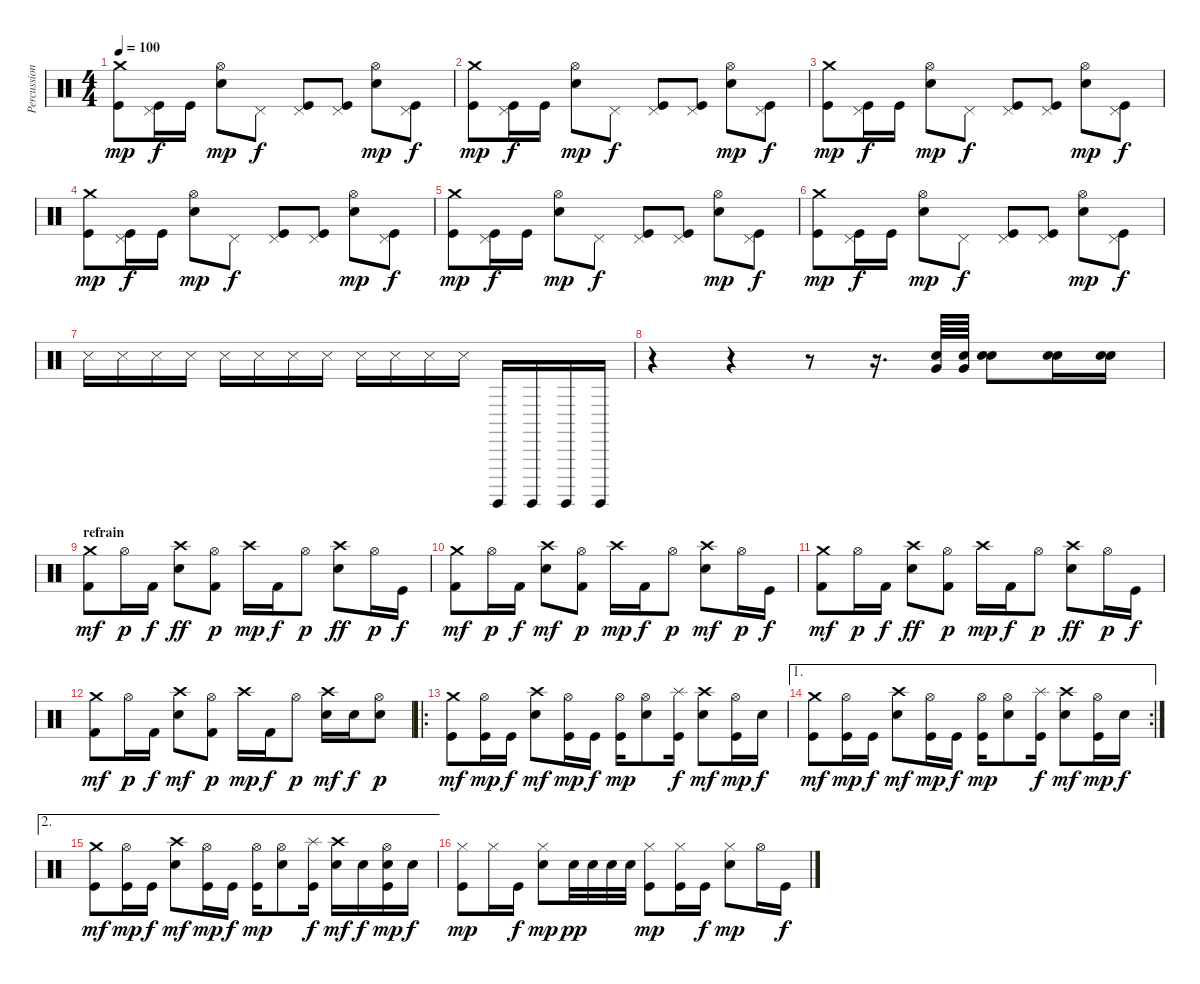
\track ("Percussions" "Percussion") {instrument percussion}
\staff {score}
\articulation defaults
\ts (4 4)
\tempo 100
\clef neutral
\ks c
("Crash medium (hit)" "Kick (hit)").8{dy mp} ("Pedal Hi-Hat (hit)" "Kick (hit)").16{dy f} "Kick (hit)".16 ("Hi-Hat (open)" "Electric Snare (hit)").8{dy mp} "Pedal Hi-Hat (hit)".8{dy f} ("Pedal Hi-Hat (hit)" "Kick (hit)").8 ("Pedal Hi-Hat (hit)" "Kick (hit)").8 ("Hi-Hat (open)" "Electric Snare (hit)").8{dy mp} ("Pedal Hi-Hat (hit)" "Kick (hit)").8{dy f} |
("Crash medium (hit)" "Kick (hit)").8{dy mp} ("Pedal Hi-Hat (hit)" "Kick (hit)").16{dy f} "Kick (hit)".16 ("Hi-Hat (open)" "Electric Snare (hit)").8{dy mp} "Pedal Hi-Hat (hit)".8{dy f} ("Pedal Hi-Hat (hit)" "Kick (hit)").8 ("Pedal Hi-Hat (hit)" "Kick (hit)").8 ("Hi-Hat (open)" "Electric Snare (hit)").8{dy mp} ("Pedal Hi-Hat (hit)" "Kick (hit)").8{dy f} |
("Crash medium (hit)" "Kick (hit)").8{dy mp} ("Pedal Hi-Hat (hit)" "Kick (hit)").16{dy f} "Kick (hit)".16 ("Hi-Hat (open)" "Electric Snare (hit)").8{dy mp} "Pedal Hi-Hat (hit)".8{dy f} ("Pedal Hi-Hat (hit)" "Kick (hit)").8 ("Pedal Hi-Hat (hit)" "Kick (hit)").8 ("Hi-Hat (open)" "Electric Snare (hit)").8{dy mp} ("Pedal Hi-Hat (hit)" "Kick (hit)").8{dy f} |
("Crash medium (hit)" "Kick (hit)").8{dy mp} ("Pedal Hi-Hat (hit)" "Kick (hit)").16{dy f} "Kick (hit)".16 ("Hi-Hat (open)" "Electric Snare (hit)").8{dy mp} "Pedal Hi-Hat (hit)".8{dy f} ("Pedal Hi-Hat (hit)" "Kick (hit)").8 ("Pedal Hi-Hat (hit)" "Kick (hit)").8 ("Hi-Hat (open)" "Electric Snare (hit)").8{dy mp} ("Pedal Hi-Hat (hit)" "Kick (hit)").8{dy f} |
("Crash medium (hit)" "Kick (hit)").8{dy mp} ("Pedal Hi-Hat (hit)" "Kick (hit)").16{dy f} "Kick (hit)".16 ("Hi-Hat (open)" "Electric Snare (hit)").8{dy mp} "Pedal Hi-Hat (hit)".8{dy f} ("Pedal Hi-Hat (hit)" "Kick (hit)").8 ("Pedal Hi-Hat (hit)" "Kick (hit)").8 ("Hi-Hat (open)" "Electric Snare (hit)").8{dy mp} ("Pedal Hi-Hat (hit)" "Kick (hit)").8{dy f} |
("Crash medium (hit)" "Kick (hit)").8{dy mp} ("Pedal Hi-Hat (hit)" "Kick (hit)").16{dy f} "Kick (hit)".16 ("Hi-Hat (open)" "Electric Snare (hit)").8{dy mp} "Pedal Hi-Hat (hit)".8{dy f} ("Pedal Hi-Hat (hit)" "Kick (hit)").8 ("Pedal Hi-Hat (hit)" "Kick (hit)").8 ("Hi-Hat (open)" "Electric Snare (hit)").8{dy mp} ("Pedal Hi-Hat (hit)" "Kick (hit)").8{dy f} |
"Metronome (hit)".16{volume 9} "Metronome (hit)".16 "Metronome (hit)".16 "Metronome (hit)".16 "Metronome (hit)".16 "Metronome (hit)".16 "Metronome (hit)".16 "Metronome (hit)".16 "Metronome (hit)".16 "Metronome (hit)".16 "Metronome (hit)".16 "Metronome (hit)".16 "Surdo (hit)".16 "Surdo (hit)".16 "Surdo (hit)".16 "Surdo (hit)".16 |
r.4 r.4 r.8 r.16{d volume 15} ("Very Low Tom (hit)" "Snare (hit) 2").64 ("Very Low Tom (hit)" "Snare (hit) 2").64 ("Electric Snare (hit)" "Snare (hit) 2").8 ("Electric Snare (hit)" "Snare (hit) 2").16 ("Electric Snare (hit)" "Snare (hit) 2").16 |
\section ("" "refrain")
("Crash medium (hit)" "Kick (hit) 2").8{dy mf} "Hi-Hat (open)".16{dy p} "Kick (hit) 2".16{dy f} ("Crash high (hit)" "Electric Snare (hit)").8{dy ff} ("Hi-Hat (open)" "Kick (hit) 2").8{dy p} "Crash high (hit)".16{dy mp} "Kick (hit) 2".16{dy f} "Hi-Hat (open)".8{dy p} ("Crash high (hit)" "Electric Snare (hit)").8{dy ff} "Hi-Hat (open)".16{dy p} "Kick (hit)".16{dy f} |
("Crash medium (hit)" "Kick (hit) 2").8{dy mf} "Hi-Hat (open)".16{dy p} "Kick (hit) 2".16{dy f} ("Crash high (hit)" "Electric Snare (hit)").8{dy mf} ("Hi-Hat (open)" "Kick (hit) 2").8{dy p} "Crash high (hit)".16{dy mp} "Kick (hit) 2".16{dy f} "Hi-Hat (open)".8{dy p} ("Crash high (hit)" "Electric Snare (hit)").8{dy mf} "Hi-Hat (open)".16{dy p} "Kick (hit)".16{dy f} |
("Crash medium (hit)" "Kick (hit) 2").8{dy mf} "Hi-Hat (open)".16{dy p} "Kick (hit) 2".16{dy f} ("Crash high (hit)" "Electric Snare (hit)").8{dy ff} ("Hi-Hat (open)" "Kick (hit) 2").8{dy p} "Crash high (hit)".16{dy mp} "Kick (hit) 2".16{dy f} "Hi-Hat (open)".8{dy p} ("Crash high (hit)" "Electric Snare (hit)").8{dy ff} "Hi-Hat (open)".16{dy p} "Kick (hit)".16{dy f} |
("Crash medium (hit)" "Kick (hit) 2").8{dy mf} "Hi-Hat (open)".16{dy p} "Kick (hit) 2".16{dy f} ("Crash high (hit)" "Electric Snare (hit)").8{dy mf} ("Hi-Hat (open)" "Kick (hit) 2").8{dy p} "Crash high (hit)".16{dy mp} "Kick (hit) 2".16{dy f} "Hi-Hat (open)".8{dy p} ("Crash high (hit)" "Electric Snare (hit)").16{dy mf} "Electric Snare (hit)".16{dy f} ("Hi-Hat (open)" "Electric Snare (hit)").8{dy p} |
\ro
("Crash medium (hit)" "Kick (hit)").8{dy mf} ("Hi-Hat (open)" "Kick (hit)").16{dy mp} "Kick (hit)".16{dy f} ("Crash high (hit)" "Electric Snare (hit)").8{dy mf} ("Hi-Hat (open)" "Kick (hit)").16{dy mp} "Kick (hit)".16{dy f} ("Hi-Hat (open)" "Kick (hit)").16{dy mp} ("Hi-Hat (open)" "Electric Snare (hit)").8 ("Splash (hit)" "Kick (hit)").16{dy f} ("Crash high (hit)" "Electric Snare (hit)").8{dy mf} ("Hi-Hat (open)" "Kick (hit)").16{dy mp} "Electric Snare (hit)".16{dy f} |
\ae 1
\rc 2
("Crash medium (hit)" "Kick (hit)").8{dy mf} ("Hi-Hat (open)" "Kick (hit)").16{dy mp} "Kick (hit)".16{dy f} ("Crash high (hit)" "Electric Snare (hit)").8{dy mf} ("Hi-Hat (open)" "Kick (hit)").16{dy mp} "Kick (hit)".16{dy f} ("Hi-Hat (open)" "Kick (hit)").16{dy mp} ("Hi-Hat (open)" "Electric Snare (hit)").8 ("Splash (hit)" "Kick (hit)").16{dy f} ("Crash high (hit)" "Electric Snare (hit)").8{dy mf} ("Hi-Hat (open)" "Kick (hit)").16{dy mp} "Electric Snare (hit)".16{dy f} |
\ae 2
("Crash medium (hit)" "Kick (hit)").8{dy mf} ("Hi-Hat (open)" "Kick (hit)").16{dy mp} "Kick (hit)".16{dy f} ("Crash high (hit)" "Electric Snare (hit)").8{dy mf} ("Hi-Hat (open)" "Kick (hit)").16{dy mp} "Kick (hit)".16{dy f} ("Hi-Hat (open)" "Kick (hit)").16{dy mp} ("Hi-Hat (open)" "Electric Snare (hit)").8 ("Splash (hit)" "Kick (hit)").16{dy f} ("Crash high (hit)" "Electric Snare (hit)").16{dy mf} "Electric Snare (hit)".16{dy f} ("Hi-Hat (open)" "Electric Snare (hit)" "Kick (hit)").16{dy mp} "Electric Snare (hit)".16{dy f} |
("Hi-Hat (closed)" "Kick (hit)").8{dy mp} "Hi-Hat (closed)".16 "Kick (hit)".16{dy f} ("Hi-Hat (closed)" "Electric Snare (hit)").8{dy mp} "Snare (hit) 2".32{dy pp} "Snare (hit) 2".32 "Snare (hit) 2".32 "Snare (hit) 2".32 ("Hi-Hat (closed)" "Kick (hit)").8{dy mp} ("Hi-Hat (closed)" "Kick (hit)").16 "Kick (hit)".16{dy f} ("Hi-Hat (closed)" "Electric Snare (hit)").8{dy mp} "Hi-Hat (open)".16 "Kick (hit)".16{dy f}
